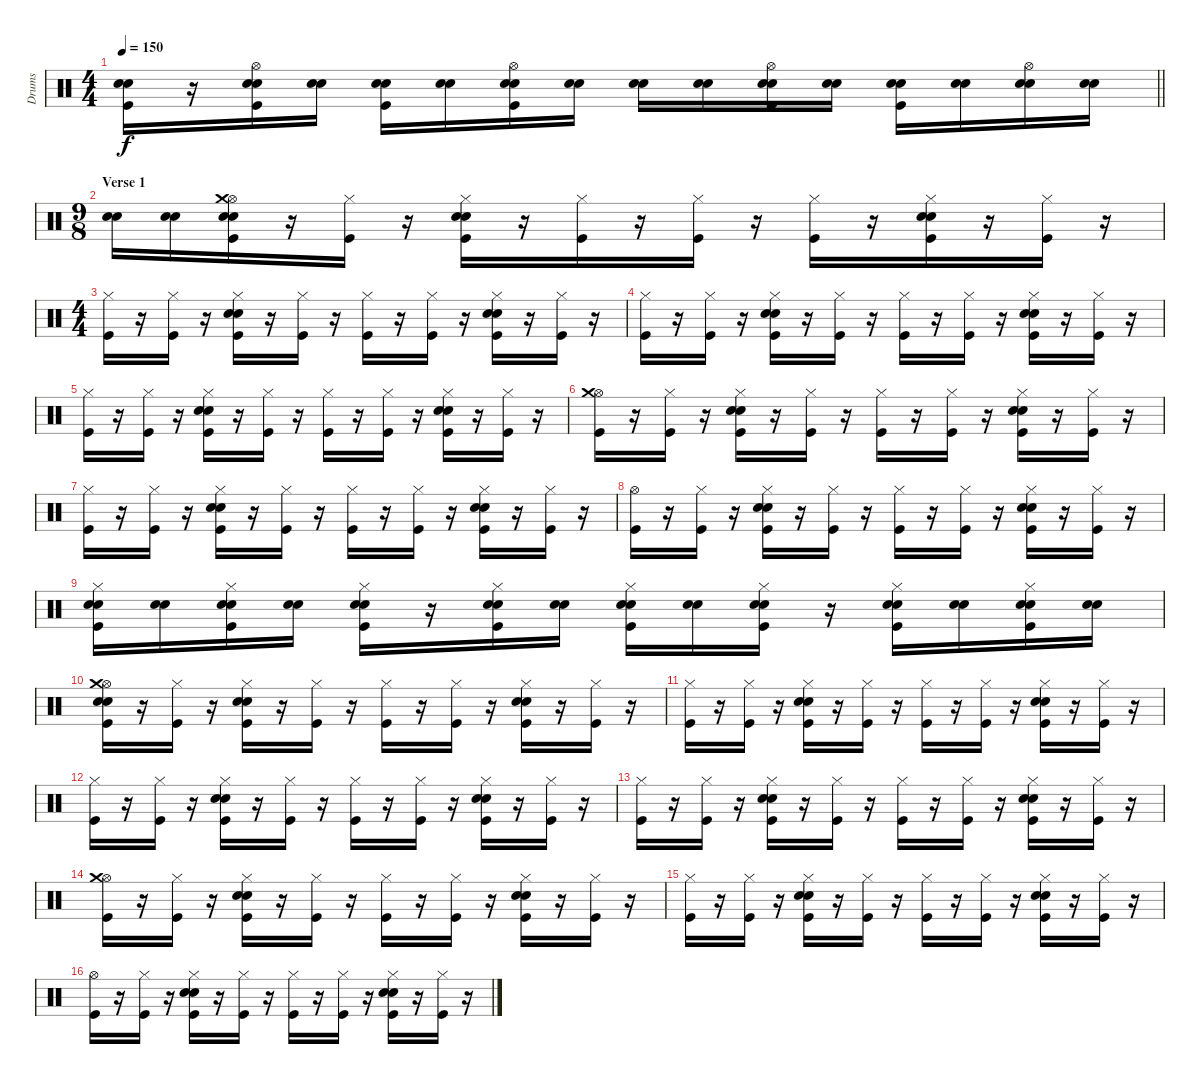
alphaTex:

\track ("Drums" "Drums") {instrument percussion}
\staff {score}
\articulation defaults
\ts (4 4)
\tempo 150
\clef neutral
\barLineRight lightlight
\ks c
("Electric Snare (hit)" "Snare (hit) 2" "Kick (hit)").16{dy f} r.16 ("Electric Snare (hit)" "Snare (hit) 2" "Kick (hit)" "Hi-Hat (open)").16 ("Electric Snare (hit)" "Snare (hit) 2").16 ("Electric Snare (hit)" "Snare (hit) 2" "Kick (hit)").16 ("Electric Snare (hit)" "Snare (hit) 2").16 ("Electric Snare (hit)" "Snare (hit) 2" "Kick (hit)" "Hi-Hat (open)").16 ("Electric Snare (hit)" "Snare (hit) 2").16 ("Electric Snare (hit)" "Snare (hit) 2").16 ("Electric Snare (hit)" "Snare (hit) 2").16 ("Electric Snare (hit)" "Snare (hit) 2" "Kick (hit)" "Hi-Hat (open)").16 ("Electric Snare (hit)" "Snare (hit) 2").16 ("Electric Snare (hit)" "Snare (hit) 2" "Kick (hit)").16 ("Electric Snare (hit)" "Snare (hit) 2").16 ("Electric Snare (hit)" "Snare (hit) 2" "Hi-Hat (open)").16 ("Electric Snare (hit)" "Snare (hit) 2").16 |
\ts (9 8)
\section ("" "Verse 1")
("Electric Snare (hit)" "Snare (hit) 2").16 ("Electric Snare (hit)" "Snare (hit) 2").16 ("Electric Snare (hit)" "Snare (hit) 2" "Kick (hit)" "Hi-Hat (open)" "Crash medium (hit)").16 r.16 ("Kick (hit)" "Hi-Hat (closed)").16 r.16 ("Snare (hit) 2" "Electric Snare (hit)" "Kick (hit)" "Hi-Hat (closed)").16 r.16 ("Kick (hit)" "Hi-Hat (closed)").16 r.16 ("Kick (hit)" "Hi-Hat (closed)").16 r.16 ("Kick (hit)" "Hi-Hat (closed)").16 r.16 ("Snare (hit) 2" "Electric Snare (hit)" "Kick (hit)" "Hi-Hat (closed)").16 r.16 ("Kick (hit)" "Hi-Hat (closed)").16 r.16 |
\ts (4 4)
("Hi-Hat (closed)" "Kick (hit)").16 r.16 ("Hi-Hat (closed)" "Kick (hit)").16 r.16 ("Snare (hit) 2" "Electric Snare (hit)" "Hi-Hat (closed)" "Kick (hit)").16 r.16 ("Hi-Hat (closed)" "Kick (hit)").16 r.16 ("Hi-Hat (closed)" "Kick (hit)").16 r.16 ("Hi-Hat (closed)" "Kick (hit)").16 r.16 ("Snare (hit) 2" "Electric Snare (hit)" "Hi-Hat (closed)" "Kick (hit)").16 r.16 ("Hi-Hat (closed)" "Kick (hit)").16 r.16 |
("Hi-Hat (closed)" "Kick (hit)").16 r.16 ("Hi-Hat (closed)" "Kick (hit)").16 r.16 ("Snare (hit) 2" "Electric Snare (hit)" "Hi-Hat (closed)" "Kick (hit)").16 r.16 ("Hi-Hat (closed)" "Kick (hit)").16 r.16 ("Hi-Hat (closed)" "Kick (hit)").16 r.16 ("Hi-Hat (closed)" "Kick (hit)").16 r.16 ("Snare (hit) 2" "Electric Snare (hit)" "Hi-Hat (closed)" "Kick (hit)").16 r.16 ("Hi-Hat (closed)" "Kick (hit)").16 r.16 |
("Hi-Hat (closed)" "Kick (hit)").16 r.16 ("Hi-Hat (closed)" "Kick (hit)").16 r.16 ("Snare (hit) 2" "Electric Snare (hit)" "Hi-Hat (closed)" "Kick (hit)").16 r.16 ("Hi-Hat (closed)" "Kick (hit)").16 r.16 ("Hi-Hat (closed)" "Kick (hit)").16 r.16 ("Hi-Hat (closed)" "Kick (hit)").16 r.16 ("Snare (hit) 2" "Electric Snare (hit)" "Hi-Hat (closed)" "Kick (hit)").16 r.16 ("Hi-Hat (closed)" "Kick (hit)").16 r.16 |
("Kick (hit)" "Hi-Hat (open)" "Crash medium (hit)").16 r.16 ("Kick (hit)" "Hi-Hat (closed)").16 r.16 ("Snare (hit) 2" "Electric Snare (hit)" "Kick (hit)" "Hi-Hat (closed)").16 r.16 ("Kick (hit)" "Hi-Hat (closed)").16 r.16 ("Kick (hit)" "Hi-Hat (closed)").16 r.16 ("Kick (hit)" "Hi-Hat (closed)").16 r.16 ("Snare (hit) 2" "Electric Snare (hit)" "Kick (hit)" "Hi-Hat (closed)").16 r.16 ("Kick (hit)" "Hi-Hat (closed)").16 r.16 |
("Hi-Hat (closed)" "Kick (hit)").16 r.16 ("Hi-Hat (closed)" "Kick (hit)").16 r.16 ("Snare (hit) 2" "Electric Snare (hit)" "Hi-Hat (closed)" "Kick (hit)").16 r.16 ("Hi-Hat (closed)" "Kick (hit)").16 r.16 ("Hi-Hat (closed)" "Kick (hit)").16 r.16 ("Hi-Hat (closed)" "Kick (hit)").16 r.16 ("Snare (hit) 2" "Electric Snare (hit)" "Hi-Hat (closed)" "Kick (hit)").16 r.16 ("Hi-Hat (closed)" "Kick (hit)").16 r.16 |
("Kick (hit)" "Hi-Hat (open)").16 r.16 ("Kick (hit)" "Hi-Hat (closed)").16 r.16 ("Snare (hit) 2" "Electric Snare (hit)" "Kick (hit)" "Hi-Hat (closed)").16 r.16 ("Kick (hit)" "Hi-Hat (closed)").16 r.16 ("Kick (hit)" "Hi-Hat (closed)").16 r.16 ("Kick (hit)" "Hi-Hat (closed)").16 r.16 ("Snare (hit) 2" "Electric Snare (hit)" "Kick (hit)" "Hi-Hat (closed)").16 r.16 ("Kick (hit)" "Hi-Hat (closed)").16 r.16 |
("Snare (hit) 2" "Electric Snare (hit)" "Hi-Hat (closed)" "Kick (hit)").16 ("Snare (hit) 2" "Electric Snare (hit)").16 ("Snare (hit) 2" "Electric Snare (hit)" "Hi-Hat (closed)" "Kick (hit)").16 ("Snare (hit) 2" "Electric Snare (hit)").16 ("Snare (hit) 2" "Electric Snare (hit)" "Hi-Hat (closed)" "Kick (hit)").16 r.16 ("Snare (hit) 2" "Electric Snare (hit)" "Hi-Hat (closed)" "Kick (hit)").16 ("Snare (hit) 2" "Electric Snare (hit)").16 ("Snare (hit) 2" "Electric Snare (hit)" "Hi-Hat (closed)" "Kick (hit)").16 ("Snare (hit) 2" "Electric Snare (hit)").16 ("Snare (hit) 2" "Electric Snare (hit)" "Hi-Hat (closed)" "Kick (hit)").16 r.16 ("Snare (hit) 2" "Electric Snare (hit)" "Hi-Hat (closed)" "Kick (hit)").16 ("Snare (hit) 2" "Electric Snare (hit)").16 ("Snare (hit) 2" "Electric Snare (hit)" "Hi-Hat (closed)" "Kick (hit)").16 ("Snare (hit) 2" "Electric Snare (hit)").16 |
("Snare (hit) 2" "Electric Snare (hit)" "Kick (hit)" "Hi-Hat (open)" "Crash medium (hit)").16 r.16 ("Kick (hit)" "Hi-Hat (closed)").16 r.16 ("Snare (hit) 2" "Electric Snare (hit)" "Kick (hit)" "Hi-Hat (closed)").16 r.16 ("Kick (hit)" "Hi-Hat (closed)").16 r.16 ("Kick (hit)" "Hi-Hat (closed)").16 r.16 ("Kick (hit)" "Hi-Hat (closed)").16 r.16 ("Snare (hit) 2" "Electric Snare (hit)" "Kick (hit)" "Hi-Hat (closed)").16 r.16 ("Kick (hit)" "Hi-Hat (closed)").16 r.16 |
("Hi-Hat (closed)" "Kick (hit)").16 r.16 ("Hi-Hat (closed)" "Kick (hit)").16 r.16 ("Snare (hit) 2" "Electric Snare (hit)" "Hi-Hat (closed)" "Kick (hit)").16 r.16 ("Hi-Hat (closed)" "Kick (hit)").16 r.16 ("Hi-Hat (closed)" "Kick (hit)").16 r.16 ("Hi-Hat (closed)" "Kick (hit)").16 r.16 ("Snare (hit) 2" "Electric Snare (hit)" "Hi-Hat (closed)" "Kick (hit)").16 r.16 ("Hi-Hat (closed)" "Kick (hit)").16 r.16 |
("Hi-Hat (closed)" "Kick (hit)").16 r.16 ("Hi-Hat (closed)" "Kick (hit)").16 r.16 ("Snare (hit) 2" "Electric Snare (hit)" "Hi-Hat (closed)" "Kick (hit)").16 r.16 ("Hi-Hat (closed)" "Kick (hit)").16 r.16 ("Hi-Hat (closed)" "Kick (hit)").16 r.16 ("Hi-Hat (closed)" "Kick (hit)").16 r.16 ("Snare (hit) 2" "Electric Snare (hit)" "Hi-Hat (closed)" "Kick (hit)").16 r.16 ("Hi-Hat (closed)" "Kick (hit)").16 r.16 |
("Hi-Hat (closed)" "Kick (hit)").16 r.16 ("Hi-Hat (closed)" "Kick (hit)").16 r.16 ("Snare (hit) 2" "Electric Snare (hit)" "Hi-Hat (closed)" "Kick (hit)").16 r.16 ("Hi-Hat (closed)" "Kick (hit)").16 r.16 ("Hi-Hat (closed)" "Kick (hit)").16 r.16 ("Hi-Hat (closed)" "Kick (hit)").16 r.16 ("Snare (hit) 2" "Electric Snare (hit)" "Hi-Hat (closed)" "Kick (hit)").16 r.16 ("Hi-Hat (closed)" "Kick (hit)").16 r.16 |
("Kick (hit)" "Hi-Hat (open)" "Crash medium (hit)").16 r.16 ("Kick (hit)" "Hi-Hat (closed)").16 r.16 ("Snare (hit) 2" "Electric Snare (hit)" "Kick (hit)" "Hi-Hat (closed)").16 r.16 ("Kick (hit)" "Hi-Hat (closed)").16 r.16 ("Kick (hit)" "Hi-Hat (closed)").16 r.16 ("Kick (hit)" "Hi-Hat (closed)").16 r.16 ("Snare (hit) 2" "Electric Snare (hit)" "Kick (hit)" "Hi-Hat (closed)").16 r.16 ("Kick (hit)" "Hi-Hat (closed)").16 r.16 |
("Hi-Hat (closed)" "Kick (hit)").16 r.16 ("Hi-Hat (closed)" "Kick (hit)").16 r.16 ("Snare (hit) 2" "Electric Snare (hit)" "Hi-Hat (closed)" "Kick (hit)").16 r.16 ("Hi-Hat (closed)" "Kick (hit)").16 r.16 ("Hi-Hat (closed)" "Kick (hit)").16 r.16 ("Hi-Hat (closed)" "Kick (hit)").16 r.16 ("Snare (hit) 2" "Electric Snare (hit)" "Hi-Hat (closed)" "Kick (hit)").16 r.16 ("Hi-Hat (closed)" "Kick (hit)").16 r.16 |
("Kick (hit)" "Hi-Hat (open)").16 r.16 ("Kick (hit)" "Hi-Hat (closed)").16 r.16 ("Snare (hit) 2" "Electric Snare (hit)" "Kick (hit)" "Hi-Hat (closed)").16 r.16 ("Kick (hit)" "Hi-Hat (closed)").16 r.16 ("Kick (hit)" "Hi-Hat (closed)").16 r.16 ("Kick (hit)" "Hi-Hat (closed)").16 r.16 ("Snare (hit) 2" "Electric Snare (hit)" "Kick (hit)" "Hi-Hat (closed)").16 r.16 ("Kick (hit)" "Hi-Hat (closed)").16 r.16
